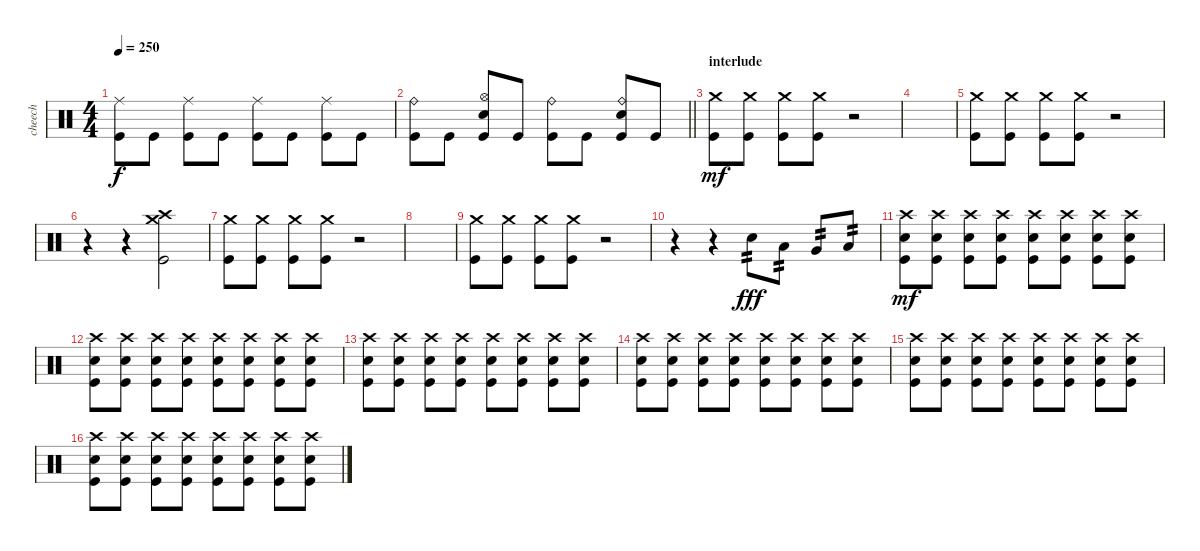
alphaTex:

\track ("cheech" "cheech") {instrument percussion}
\staff {score}
\articulation defaults
\ts (4 4)
\tempo 250
\clef neutral
\ks c
("Ride (middle)" "Kick (hit)").8{dy f} "Kick (hit)".8 ("Ride (middle)" "Kick (hit)").8 "Kick (hit)".8 ("Ride (middle)" "Kick (hit)").8 "Kick (hit)".8 ("Ride (middle)" "Kick (hit)").8 "Kick (hit)".8 |
\barLineRight lightlight
("Ride (bell)" "Kick (hit)").8 "Kick (hit)".8 ("Hi-Hat (open)" "Electric Snare (hit)" "Kick (hit)").8 "Kick (hit)".8 ("Ride (bell)" "Kick (hit)").8 "Kick (hit)".8 ("Ride (bell)" "Electric Snare (hit)" "Kick (hit)").8 "Kick (hit)".8 |
\section ("" "interlude")
("Crash medium (hit)" "Kick (hit)").8{dy mf} ("Crash medium (hit)" "Kick (hit)").8 ("Crash medium (hit)" "Kick (hit)").8 ("Crash medium (hit)" "Kick (hit)").8 r.2 |
|
("Crash medium (hit)" "Kick (hit)").8 ("Crash medium (hit)" "Kick (hit)").8 ("Crash medium (hit)" "Kick (hit)").8 ("Crash medium (hit)" "Kick (hit)").8 r.2 |
r.4 r.4 ("Crash medium (hit)" "Crash high (hit)" "Kick (hit)").2 |
("Crash medium (hit)" "Kick (hit)").8 ("Crash medium (hit)" "Kick (hit)").8 ("Crash medium (hit)" "Kick (hit)").8 ("Crash medium (hit)" "Kick (hit)").8 r.2 |
|
("Crash medium (hit)" "Kick (hit)").8 ("Crash medium (hit)" "Kick (hit)").8 ("Crash medium (hit)" "Kick (hit)").8 ("Crash medium (hit)" "Kick (hit)").8 r.2 |
r.4 r.4 "Electric Snare (hit)".8{tp 2 dy fff} "Low Tom (hit)".8{tp 2} "Very Low Tom (hit)".8{tp 2} "Low Floor Tom (hit)".8{tp 2} |
("Crash high (hit)" "Electric Snare (hit)" "Kick (hit)").8{dy mf} ("Crash high (hit)" "Electric Snare (hit)" "Kick (hit)").8 ("Crash high (hit)" "Electric Snare (hit)" "Kick (hit)").8 ("Crash high (hit)" "Electric Snare (hit)" "Kick (hit)").8 ("Crash high (hit)" "Electric Snare (hit)" "Kick (hit)").8 ("Crash high (hit)" "Electric Snare (hit)" "Kick (hit)").8 ("Crash high (hit)" "Electric Snare (hit)" "Kick (hit)").8 ("Crash high (hit)" "Electric Snare (hit)" "Kick (hit)").8 |
("Crash high (hit)" "Electric Snare (hit)" "Kick (hit)").8 ("Crash high (hit)" "Electric Snare (hit)" "Kick (hit)").8 ("Crash high (hit)" "Electric Snare (hit)" "Kick (hit)").8 ("Crash high (hit)" "Electric Snare (hit)" "Kick (hit)").8 ("Crash high (hit)" "Electric Snare (hit)" "Kick (hit)").8 ("Crash high (hit)" "Electric Snare (hit)" "Kick (hit)").8 ("Crash high (hit)" "Electric Snare (hit)" "Kick (hit)").8 ("Crash high (hit)" "Electric Snare (hit)" "Kick (hit)").8 |
("Crash high (hit)" "Electric Snare (hit)" "Kick (hit)").8 ("Crash high (hit)" "Electric Snare (hit)" "Kick (hit)").8 ("Crash high (hit)" "Electric Snare (hit)" "Kick (hit)").8 ("Crash high (hit)" "Electric Snare (hit)" "Kick (hit)").8 ("Crash high (hit)" "Electric Snare (hit)" "Kick (hit)").8 ("Crash high (hit)" "Electric Snare (hit)" "Kick (hit)").8 ("Crash high (hit)" "Electric Snare (hit)" "Kick (hit)").8 ("Crash high (hit)" "Electric Snare (hit)" "Kick (hit)").8 |
("Crash high (hit)" "Electric Snare (hit)" "Kick (hit)").8 ("Crash high (hit)" "Electric Snare (hit)" "Kick (hit)").8 ("Crash high (hit)" "Electric Snare (hit)" "Kick (hit)").8 ("Crash high (hit)" "Electric Snare (hit)" "Kick (hit)").8 ("Crash high (hit)" "Electric Snare (hit)" "Kick (hit)").8 ("Crash high (hit)" "Electric Snare (hit)" "Kick (hit)").8 ("Crash high (hit)" "Electric Snare (hit)" "Kick (hit)").8 ("Crash high (hit)" "Electric Snare (hit)" "Kick (hit)").8 |
("Crash high (hit)" "Electric Snare (hit)" "Kick (hit)").8 ("Crash high (hit)" "Electric Snare (hit)" "Kick (hit)").8 ("Crash high (hit)" "Electric Snare (hit)" "Kick (hit)").8 ("Crash high (hit)" "Electric Snare (hit)" "Kick (hit)").8 ("Crash high (hit)" "Electric Snare (hit)" "Kick (hit)").8 ("Crash high (hit)" "Electric Snare (hit)" "Kick (hit)").8 ("Crash high (hit)" "Electric Snare (hit)" "Kick (hit)").8 ("Crash high (hit)" "Electric Snare (hit)" "Kick (hit)").8 |
("Crash high (hit)" "Electric Snare (hit)" "Kick (hit)").8 ("Crash high (hit)" "Electric Snare (hit)" "Kick (hit)").8 ("Crash high (hit)" "Electric Snare (hit)" "Kick (hit)").8 ("Crash high (hit)" "Electric Snare (hit)" "Kick (hit)").8 ("Crash high (hit)" "Electric Snare (hit)" "Kick (hit)").8 ("Crash high (hit)" "Electric Snare (hit)" "Kick (hit)").8 ("Crash high (hit)" "Electric Snare (hit)" "Kick (hit)").8 ("Crash high (hit)" "Electric Snare (hit)" "Kick (hit)").8
